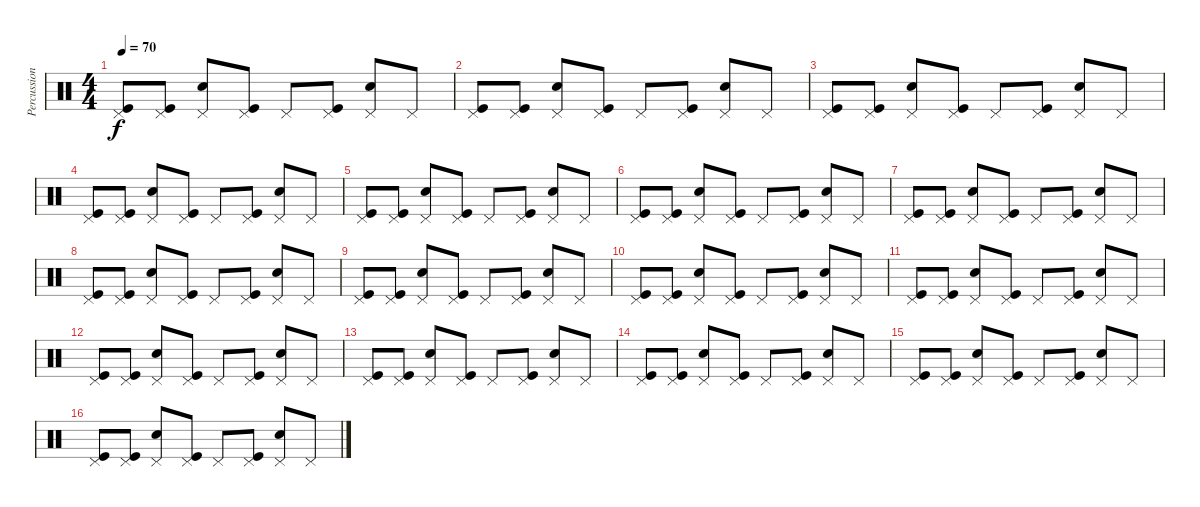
\track ("Percussion" "Percussion") {instrument percussion}
\staff {score}
\articulation defaults
\ts (4 4)
\tempo 70
\clef neutral
\ks c
("Pedal Hi-Hat (hit)" "Kick (hit)").8{dy f} ("Pedal Hi-Hat (hit)" "Kick (hit)").8 ("Pedal Hi-Hat (hit)" "Snare (hit) 2").8 ("Pedal Hi-Hat (hit)" "Kick (hit)").8 "Pedal Hi-Hat (hit)".8 ("Pedal Hi-Hat (hit)" "Kick (hit)").8 ("Pedal Hi-Hat (hit)" "Snare (hit) 2").8 "Pedal Hi-Hat (hit)".8 |
("Pedal Hi-Hat (hit)" "Kick (hit)").8 ("Pedal Hi-Hat (hit)" "Kick (hit)").8 ("Pedal Hi-Hat (hit)" "Snare (hit) 2").8 ("Pedal Hi-Hat (hit)" "Kick (hit)").8 "Pedal Hi-Hat (hit)".8 ("Pedal Hi-Hat (hit)" "Kick (hit)").8 ("Pedal Hi-Hat (hit)" "Snare (hit) 2").8 "Pedal Hi-Hat (hit)".8 |
("Pedal Hi-Hat (hit)" "Kick (hit)").8 ("Pedal Hi-Hat (hit)" "Kick (hit)").8 ("Pedal Hi-Hat (hit)" "Snare (hit) 2").8 ("Pedal Hi-Hat (hit)" "Kick (hit)").8 "Pedal Hi-Hat (hit)".8 ("Pedal Hi-Hat (hit)" "Kick (hit)").8 ("Pedal Hi-Hat (hit)" "Snare (hit) 2").8 "Pedal Hi-Hat (hit)".8 |
("Pedal Hi-Hat (hit)" "Kick (hit)").8 ("Pedal Hi-Hat (hit)" "Kick (hit)").8 ("Pedal Hi-Hat (hit)" "Snare (hit) 2").8 ("Pedal Hi-Hat (hit)" "Kick (hit)").8 "Pedal Hi-Hat (hit)".8 ("Pedal Hi-Hat (hit)" "Kick (hit)").8 ("Pedal Hi-Hat (hit)" "Snare (hit) 2").8 "Pedal Hi-Hat (hit)".8 |
("Pedal Hi-Hat (hit)" "Kick (hit)").8 ("Pedal Hi-Hat (hit)" "Kick (hit)").8 ("Pedal Hi-Hat (hit)" "Snare (hit) 2").8 ("Pedal Hi-Hat (hit)" "Kick (hit)").8 "Pedal Hi-Hat (hit)".8 ("Pedal Hi-Hat (hit)" "Kick (hit)").8 ("Pedal Hi-Hat (hit)" "Snare (hit) 2").8 "Pedal Hi-Hat (hit)".8 |
("Pedal Hi-Hat (hit)" "Kick (hit)").8 ("Pedal Hi-Hat (hit)" "Kick (hit)").8 ("Pedal Hi-Hat (hit)" "Snare (hit) 2").8 ("Pedal Hi-Hat (hit)" "Kick (hit)").8 "Pedal Hi-Hat (hit)".8 ("Pedal Hi-Hat (hit)" "Kick (hit)").8 ("Pedal Hi-Hat (hit)" "Snare (hit) 2").8 "Pedal Hi-Hat (hit)".8 |
("Pedal Hi-Hat (hit)" "Kick (hit)").8 ("Pedal Hi-Hat (hit)" "Kick (hit)").8 ("Pedal Hi-Hat (hit)" "Snare (hit) 2").8 ("Pedal Hi-Hat (hit)" "Kick (hit)").8 "Pedal Hi-Hat (hit)".8 ("Pedal Hi-Hat (hit)" "Kick (hit)").8 ("Pedal Hi-Hat (hit)" "Snare (hit) 2").8 "Pedal Hi-Hat (hit)".8 |
("Pedal Hi-Hat (hit)" "Kick (hit)").8 ("Pedal Hi-Hat (hit)" "Kick (hit)").8 ("Pedal Hi-Hat (hit)" "Snare (hit) 2").8 ("Pedal Hi-Hat (hit)" "Kick (hit)").8 "Pedal Hi-Hat (hit)".8 ("Pedal Hi-Hat (hit)" "Kick (hit)").8 ("Pedal Hi-Hat (hit)" "Snare (hit) 2").8 "Pedal Hi-Hat (hit)".8 |
("Pedal Hi-Hat (hit)" "Kick (hit)").8 ("Pedal Hi-Hat (hit)" "Kick (hit)").8 ("Pedal Hi-Hat (hit)" "Snare (hit) 2").8 ("Pedal Hi-Hat (hit)" "Kick (hit)").8 "Pedal Hi-Hat (hit)".8 ("Pedal Hi-Hat (hit)" "Kick (hit)").8 ("Pedal Hi-Hat (hit)" "Snare (hit) 2").8 "Pedal Hi-Hat (hit)".8 |
("Pedal Hi-Hat (hit)" "Kick (hit)").8 ("Pedal Hi-Hat (hit)" "Kick (hit)").8 ("Pedal Hi-Hat (hit)" "Snare (hit) 2").8 ("Pedal Hi-Hat (hit)" "Kick (hit)").8 "Pedal Hi-Hat (hit)".8 ("Pedal Hi-Hat (hit)" "Kick (hit)").8 ("Pedal Hi-Hat (hit)" "Snare (hit) 2").8 "Pedal Hi-Hat (hit)".8 |
("Pedal Hi-Hat (hit)" "Kick (hit)").8 ("Pedal Hi-Hat (hit)" "Kick (hit)").8 ("Pedal Hi-Hat (hit)" "Snare (hit) 2").8 ("Pedal Hi-Hat (hit)" "Kick (hit)").8 "Pedal Hi-Hat (hit)".8 ("Pedal Hi-Hat (hit)" "Kick (hit)").8 ("Pedal Hi-Hat (hit)" "Snare (hit) 2").8 "Pedal Hi-Hat (hit)".8 |
("Pedal Hi-Hat (hit)" "Kick (hit)").8 ("Pedal Hi-Hat (hit)" "Kick (hit)").8 ("Pedal Hi-Hat (hit)" "Snare (hit) 2").8 ("Pedal Hi-Hat (hit)" "Kick (hit)").8 "Pedal Hi-Hat (hit)".8 ("Pedal Hi-Hat (hit)" "Kick (hit)").8 ("Pedal Hi-Hat (hit)" "Snare (hit) 2").8 "Pedal Hi-Hat (hit)".8 |
("Pedal Hi-Hat (hit)" "Kick (hit)").8 ("Pedal Hi-Hat (hit)" "Kick (hit)").8 ("Pedal Hi-Hat (hit)" "Snare (hit) 2").8 ("Pedal Hi-Hat (hit)" "Kick (hit)").8 "Pedal Hi-Hat (hit)".8 ("Pedal Hi-Hat (hit)" "Kick (hit)").8 ("Pedal Hi-Hat (hit)" "Snare (hit) 2").8 "Pedal Hi-Hat (hit)".8 |
("Pedal Hi-Hat (hit)" "Kick (hit)").8 ("Pedal Hi-Hat (hit)" "Kick (hit)").8 ("Pedal Hi-Hat (hit)" "Snare (hit) 2").8 ("Pedal Hi-Hat (hit)" "Kick (hit)").8 "Pedal Hi-Hat (hit)".8 ("Pedal Hi-Hat (hit)" "Kick (hit)").8 ("Pedal Hi-Hat (hit)" "Snare (hit) 2").8 "Pedal Hi-Hat (hit)".8 |
("Pedal Hi-Hat (hit)" "Kick (hit)").8 ("Pedal Hi-Hat (hit)" "Kick (hit)").8 ("Pedal Hi-Hat (hit)" "Snare (hit) 2").8 ("Pedal Hi-Hat (hit)" "Kick (hit)").8 "Pedal Hi-Hat (hit)".8 ("Pedal Hi-Hat (hit)" "Kick (hit)").8 ("Pedal Hi-Hat (hit)" "Snare (hit) 2").8 "Pedal Hi-Hat (hit)".8 |
("Pedal Hi-Hat (hit)" "Kick (hit)").8 ("Pedal Hi-Hat (hit)" "Kick (hit)").8 ("Pedal Hi-Hat (hit)" "Snare (hit) 2").8 ("Pedal Hi-Hat (hit)" "Kick (hit)").8 "Pedal Hi-Hat (hit)".8 ("Pedal Hi-Hat (hit)" "Kick (hit)").8 ("Pedal Hi-Hat (hit)" "Snare (hit) 2").8 "Pedal Hi-Hat (hit)".8
